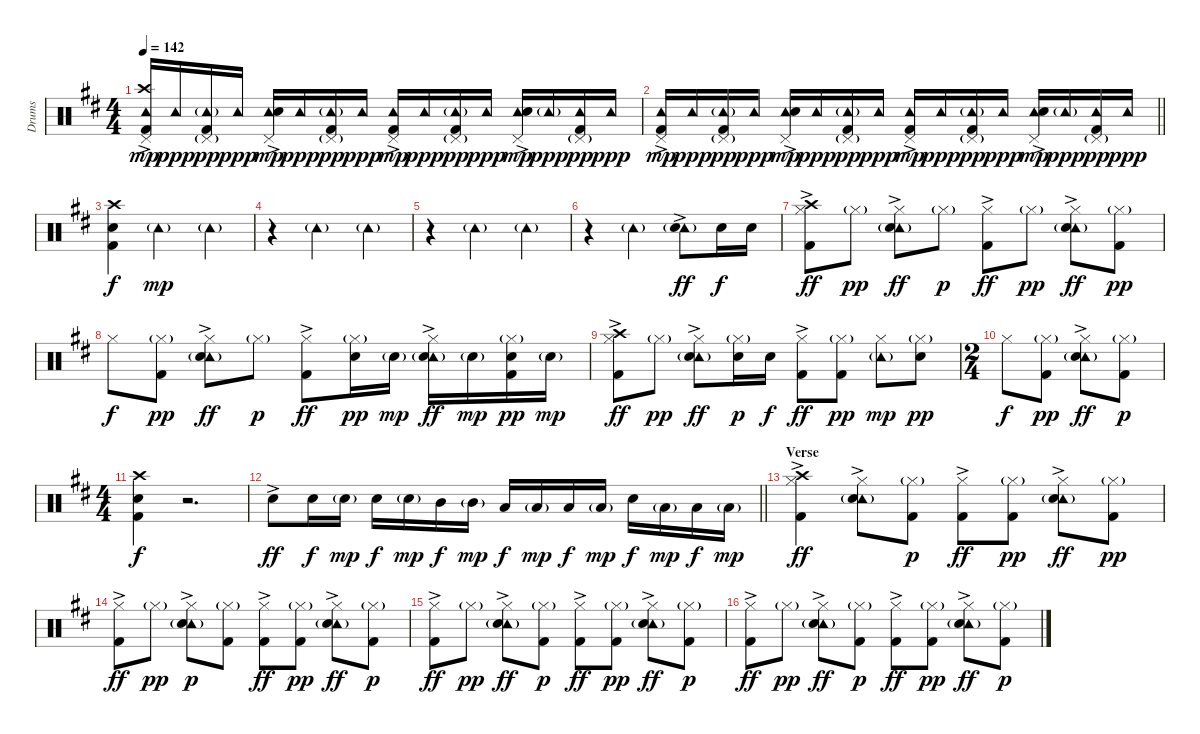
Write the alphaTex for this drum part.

\track ("Drums" "Drums") {instrument percussion}
\staff {score}
\articulation defaults
\ts (4 4)
\tempo 142
\clef neutral
\ks d
("Pedal Hi-Hat (hit)" "Tambourine (hit)" "Crash high (hit)" "Kick (hit) 2"{ac}).16{dy mp} "Tambourine (hit)".16{dy ppp} ("Pedal Hi-Hat (hit)"{g} "Tambourine (hit)"{g} "Kick (hit) 2").16{dy pp} "Tambourine (hit)".16{dy ppp} ("Pedal Hi-Hat (hit)" "Tambourine (hit)" "Snare (hit) 2"{ac}).16{dy mp} "Tambourine (hit)".16{dy ppp} ("Pedal Hi-Hat (hit)"{g} "Tambourine (hit)"{g} "Kick (hit) 2").16{dy pp} "Tambourine (hit)".16{dy ppp} ("Pedal Hi-Hat (hit)" "Tambourine (hit)" "Kick (hit) 2"{ac}).16{dy mp} "Tambourine (hit)".16{dy ppp} ("Pedal Hi-Hat (hit)"{g} "Tambourine (hit)"{g} "Kick (hit) 2").16{dy pp} "Tambourine (hit)".16{dy ppp} ("Pedal Hi-Hat (hit)" "Tambourine (hit)" "Snare (hit) 2"{ac}).16{dy mp} "Tambourine (hit)"{g}.16{dy ppp} ("Pedal Hi-Hat (hit)"{g} "Tambourine (hit)" "Kick (hit) 2").16{dy pp} "Tambourine (hit)".16{dy ppp} |
\barLineRight lightlight
("Pedal Hi-Hat (hit)" "Tambourine (hit)" "Kick (hit) 2"{ac}).16{dy mp} "Tambourine (hit)".16{dy ppp} ("Pedal Hi-Hat (hit)"{g} "Tambourine (hit)"{g} "Kick (hit) 2").16{dy pp} "Tambourine (hit)".16{dy ppp} ("Pedal Hi-Hat (hit)" "Tambourine (hit)" "Snare (hit) 2"{ac}).16{dy mp} "Tambourine (hit)".16{dy ppp} ("Pedal Hi-Hat (hit)"{g} "Tambourine (hit)"{g} "Kick (hit) 2").16{dy pp} "Tambourine (hit)".16{dy ppp} ("Pedal Hi-Hat (hit)" "Tambourine (hit)" "Kick (hit) 2"{ac}).16{dy mp} "Tambourine (hit)".16{dy ppp} ("Pedal Hi-Hat (hit)"{g} "Tambourine (hit)"{g} "Kick (hit) 2").16{dy pp} "Tambourine (hit)".16{dy ppp} ("Pedal Hi-Hat (hit)" "Tambourine (hit)" "Snare (hit) 2"{ac}).16{dy mp} "Tambourine (hit)"{g}.16{dy ppp} ("Pedal Hi-Hat (hit)"{g} "Tambourine (hit)" "Kick (hit) 2").16{dy pp} "Tambourine (hit)".16{dy ppp} |
("Crash high (hit)" "Snare (hit) 2" "Kick (hit) 2").4{dy f} "Tambourine (hit)"{g}.2{dy mp} "Tambourine (hit)"{g}.4 |
r.4 "Tambourine (hit)"{g}.2 "Tambourine (hit)"{g}.4 |
r.4 "Tambourine (hit)"{g}.2 "Tambourine (hit)"{g}.4 |
r.4 "Tambourine (hit)"{g}.2 ("Tambourine (hit)"{g} "Snare (hit) 2"{ac}).8{dy ff} "Snare (hit) 2".16{dy f} "Snare (hit) 2".16 |
("Hi-Hat (closed)" "Crash high (hit)" "Kick (hit) 2"{ac}).8{dy ff} "Hi-Hat (closed)"{g}.8{dy pp} ("Hi-Hat (closed)" "Tambourine (hit)"{g} "Snare (hit) 2"{ac}).8{dy ff} "Hi-Hat (closed)"{g}.8{dy p} ("Hi-Hat (closed)" "Kick (hit) 2"{ac}).8{dy ff} "Hi-Hat (closed)"{g}.8{dy pp} ("Hi-Hat (closed)" "Tambourine (hit)"{g} "Snare (hit) 2"{ac}).8{dy ff} ("Hi-Hat (closed)"{g} "Kick (hit) 2").8{dy pp} |
"Hi-Hat (closed)".8{dy f} ("Hi-Hat (closed)"{g} "Kick (hit) 2").8{dy pp} ("Hi-Hat (closed)" "Tambourine (hit)"{g} "Snare (hit) 2"{ac}).8{dy ff} "Hi-Hat (closed)"{g}.8{dy p} ("Hi-Hat (closed)" "Kick (hit) 2"{ac}).8{dy ff} ("Hi-Hat (closed)"{g} "Snare (hit) 2").16{dy pp} "Snare (hit) 2"{g}.16{dy mp} ("Hi-Hat (closed)" "Tambourine (hit)"{g} "Snare (hit) 2"{ac}).16{dy ff} "Snare (hit) 2"{g}.16{dy mp} ("Hi-Hat (closed)"{g} "Snare (hit) 2" "Kick (hit) 2").16{dy pp} "Snare (hit) 2"{g}.16{dy mp} |
("Hi-Hat (closed)" "Crash high (hit)" "Kick (hit) 2"{ac}).8{dy ff} "Hi-Hat (closed)"{g}.8{dy pp} ("Hi-Hat (closed)" "Tambourine (hit)"{g} "Snare (hit) 2"{ac}).8{dy ff} ("Hi-Hat (closed)"{g} "Snare (hit) 2").16{dy p} "Snare (hit) 2".16{dy f} ("Hi-Hat (closed)" "Kick (hit) 2"{ac}).8{dy ff} ("Hi-Hat (closed)"{g} "Kick (hit) 2").8{dy pp} ("Hi-Hat (closed)" "Tambourine (hit)"{g}).8{dy mp} ("Hi-Hat (closed)"{g} "Snare (hit) 2").8{dy pp} |
\ts (2 4)
"Hi-Hat (closed)".8{dy f} ("Hi-Hat (closed)"{g} "Kick (hit) 2").8{dy pp} ("Hi-Hat (closed)" "Tambourine (hit)"{g} "Snare (hit) 2"{ac}).8{dy ff} ("Hi-Hat (closed)"{g} "Kick (hit) 2").8{dy p} |
\ts (4 4)
("Crash high (hit)" "Snare (hit) 2" "Kick (hit) 2").4{dy f} r.2{d} |
\barLineRight lightlight "Snare (hit) 2"{ac}.8{dy ff} "Snare (hit) 2".16{dy f} "Snare (hit) 2"{g}.16{dy mp} "Snare (hit) 2".16{dy f} "Snare (hit) 2"{g}.16{dy mp} "Mid Tom (hit)".16{dy f} "Mid Tom (hit)"{g}.16{dy mp} "Low Tom (hit)".16{dy f} "Low Tom (hit)"{g}.16{dy mp} "Low Floor Tom (hit)".16{dy f} "Low Floor Tom (hit)"{g}.16{dy mp} "Snare (hit) 2".16{dy f} "Low Tom (hit)"{g}.16{dy mp} "Low Tom (hit)".16{dy f} "Low Floor Tom (hit)"{g}.16{dy mp}
|
\section ("" "Verse")
("Hi-Hat (closed)" "Crash high (hit)" "Kick (hit) 2"{ac}).4{dy ff} ("Hi-Hat (closed)" "Tambourine (hit)"{g} "Snare (hit) 2"{ac}).8 ("Hi-Hat (closed)"{g} "Kick (hit) 2").8{dy p} ("Hi-Hat (closed)" "Kick (hit) 2"{ac}).8{dy ff} ("Hi-Hat (closed)"{g} "Kick (hit) 2").8{dy pp} ("Hi-Hat (closed)" "Tambourine (hit)"{g} "Snare (hit) 2"{ac}).8{dy ff} ("Hi-Hat (closed)"{g} "Kick (hit) 2").8{dy pp} |
("Hi-Hat (closed)" "Kick (hit) 2"{ac}).8{dy ff} "Hi-Hat (closed)"{g}.8{dy pp} ("Hi-Hat (closed)" "Tambourine (hit)"{g} "Snare (hit) 2"{ac}).8{dy p} ("Hi-Hat (closed)"{g} "Kick (hit) 2").8 ("Hi-Hat (closed)" "Kick (hit) 2"{ac}).8{dy ff} ("Hi-Hat (closed)"{g} "Kick (hit) 2").8{dy pp} ("Hi-Hat (closed)" "Tambourine (hit)"{g} "Snare (hit) 2"{ac}).8{dy ff} ("Hi-Hat (closed)"{g} "Kick (hit) 2").8{dy p} |
("Hi-Hat (closed)" "Kick (hit) 2"{ac}).8{dy ff} "Hi-Hat (closed)"{g}.8{dy pp} ("Hi-Hat (closed)" "Tambourine (hit)"{g} "Snare (hit) 2"{ac}).8{dy ff} ("Hi-Hat (closed)"{g} "Kick (hit) 2").8{dy p} ("Hi-Hat (closed)" "Kick (hit) 2"{ac}).8{dy ff} ("Hi-Hat (closed)"{g} "Kick (hit) 2").8{dy pp} ("Hi-Hat (closed)" "Tambourine (hit)"{g} "Snare (hit) 2"{ac}).8{dy ff} ("Hi-Hat (closed)"{g} "Kick (hit) 2").8{dy p} |
("Hi-Hat (closed)" "Kick (hit) 2"{ac}).8{dy ff} "Hi-Hat (closed)"{g}.8{dy pp} ("Hi-Hat (closed)" "Tambourine (hit)"{g} "Snare (hit) 2"{ac}).8{dy ff} ("Hi-Hat (closed)"{g} "Kick (hit) 2").8{dy p} ("Hi-Hat (closed)" "Kick (hit) 2"{ac}).8{dy ff} ("Hi-Hat (closed)"{g} "Kick (hit) 2").8{dy pp} ("Hi-Hat (closed)" "Tambourine (hit)"{g} "Snare (hit) 2"{ac}).8{dy ff} ("Hi-Hat (closed)"{g} "Kick (hit) 2").8{dy p}
